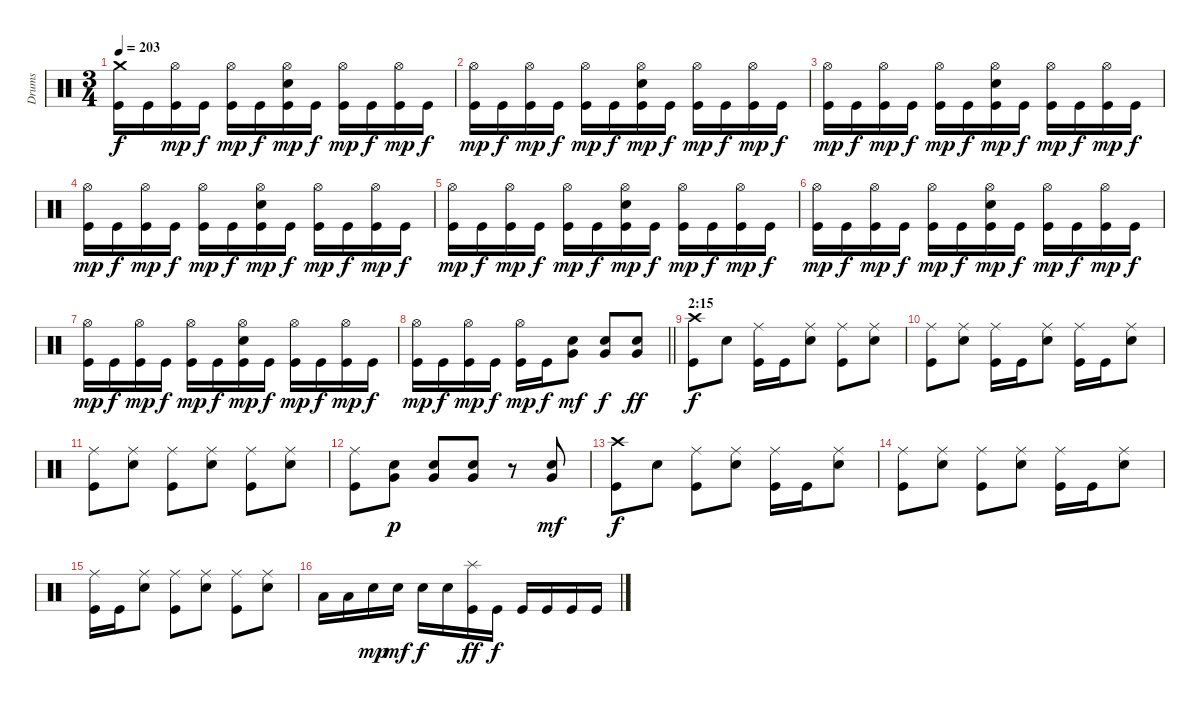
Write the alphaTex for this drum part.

\track ("Drums" "Drums") {instrument percussion}
\staff {score}
\articulation defaults
\ts (3 4)
\tempo 203
\clef neutral
\ks c
("Crash medium (hit)" "Kick (hit)").16{dy f} "Kick (hit)".16 ("Hi-Hat (open)" "Kick (hit)").16{dy mp} "Kick (hit)".16{dy f} ("Hi-Hat (open)" "Kick (hit)").16{dy mp} "Kick (hit)".16{dy f} ("Hi-Hat (open)" "Electric Snare (hit)" "Kick (hit)").16{dy mp} "Kick (hit)".16{dy f} ("Hi-Hat (open)" "Kick (hit)").16{dy mp} "Kick (hit)".16{dy f} ("Hi-Hat (open)" "Kick (hit)").16{dy mp} "Kick (hit)".16{dy f} |
("Hi-Hat (open)" "Kick (hit)").16{dy mp} "Kick (hit)".16{dy f} ("Hi-Hat (open)" "Kick (hit)").16{dy mp} "Kick (hit)".16{dy f} ("Hi-Hat (open)" "Kick (hit)").16{dy mp} "Kick (hit)".16{dy f} ("Hi-Hat (open)" "Electric Snare (hit)" "Kick (hit)").16{dy mp} "Kick (hit)".16{dy f} ("Hi-Hat (open)" "Kick (hit)").16{dy mp} "Kick (hit)".16{dy f} ("Hi-Hat (open)" "Kick (hit)").16{dy mp} "Kick (hit)".16{dy f} |
("Hi-Hat (open)" "Kick (hit)").16{dy mp} "Kick (hit)".16{dy f} ("Hi-Hat (open)" "Kick (hit)").16{dy mp} "Kick (hit)".16{dy f} ("Hi-Hat (open)" "Kick (hit)").16{dy mp} "Kick (hit)".16{dy f} ("Hi-Hat (open)" "Electric Snare (hit)" "Kick (hit)").16{dy mp} "Kick (hit)".16{dy f} ("Hi-Hat (open)" "Kick (hit)").16{dy mp} "Kick (hit)".16{dy f} ("Hi-Hat (open)" "Kick (hit)").16{dy mp} "Kick (hit)".16{dy f} |
("Hi-Hat (open)" "Kick (hit)").16{dy mp} "Kick (hit)".16{dy f} ("Hi-Hat (open)" "Kick (hit)").16{dy mp} "Kick (hit)".16{dy f} ("Hi-Hat (open)" "Kick (hit)").16{dy mp} "Kick (hit)".16{dy f} ("Hi-Hat (open)" "Electric Snare (hit)" "Kick (hit)").16{dy mp} "Kick (hit)".16{dy f} ("Hi-Hat (open)" "Kick (hit)").16{dy mp} "Kick (hit)".16{dy f} ("Hi-Hat (open)" "Kick (hit)").16{dy mp} "Kick (hit)".16{dy f} |
("Hi-Hat (open)" "Kick (hit)").16{dy mp} "Kick (hit)".16{dy f} ("Hi-Hat (open)" "Kick (hit)").16{dy mp} "Kick (hit)".16{dy f} ("Hi-Hat (open)" "Kick (hit)").16{dy mp} "Kick (hit)".16{dy f} ("Hi-Hat (open)" "Electric Snare (hit)" "Kick (hit)").16{dy mp} "Kick (hit)".16{dy f} ("Hi-Hat (open)" "Kick (hit)").16{dy mp} "Kick (hit)".16{dy f} ("Hi-Hat (open)" "Kick (hit)").16{dy mp} "Kick (hit)".16{dy f} |
("Hi-Hat (open)" "Kick (hit)").16{dy mp} "Kick (hit)".16{dy f} ("Hi-Hat (open)" "Kick (hit)").16{dy mp} "Kick (hit)".16{dy f} ("Hi-Hat (open)" "Kick (hit)").16{dy mp} "Kick (hit)".16{dy f} ("Hi-Hat (open)" "Electric Snare (hit)" "Kick (hit)").16{dy mp} "Kick (hit)".16{dy f} ("Hi-Hat (open)" "Kick (hit)").16{dy mp} "Kick (hit)".16{dy f} ("Hi-Hat (open)" "Kick (hit)").16{dy mp} "Kick (hit)".16{dy f} |
("Hi-Hat (open)" "Kick (hit)").16{dy mp} "Kick (hit)".16{dy f} ("Hi-Hat (open)" "Kick (hit)").16{dy mp} "Kick (hit)".16{dy f} ("Hi-Hat (open)" "Kick (hit)").16{dy mp} "Kick (hit)".16{dy f} ("Hi-Hat (open)" "Electric Snare (hit)" "Kick (hit)").16{dy mp} "Kick (hit)".16{dy f} ("Hi-Hat (open)" "Kick (hit)").16{dy mp} "Kick (hit)".16{dy f} ("Hi-Hat (open)" "Kick (hit)").16{dy mp} "Kick (hit)".16{dy f} |
\barLineRight lightlight
("Hi-Hat (open)" "Kick (hit)").16{dy mp} "Kick (hit)".16{dy f} ("Hi-Hat (open)" "Kick (hit)").16{dy mp} "Kick (hit)".16{dy f} ("Hi-Hat (open)" "Kick (hit)").16{dy mp} "Kick (hit)".16{dy f} ("Very Low Tom (hit)" "Electric Snare (hit)").8{dy mf} ("Very Low Tom (hit)" "Electric Snare (hit)").8{dy f} ("Very Low Tom (hit)" "Electric Snare (hit)").8{dy ff} |
\section ("" "2:15")
("Crash high (hit)" "Kick (hit)").8{dy f} "Electric Snare (hit)".8 ("Ride (middle)" "Kick (hit)").16 "Kick (hit)".16 ("Ride (middle)" "Electric Snare (hit)").8 ("Ride (middle)" "Kick (hit)").8 ("Ride (middle)" "Electric Snare (hit)").8 |
("Ride (middle)" "Kick (hit)").8 ("Ride (middle)" "Electric Snare (hit)").8 ("Ride (middle)" "Kick (hit)").16 "Kick (hit)".16 ("Ride (middle)" "Electric Snare (hit)").8 ("Ride (middle)" "Kick (hit)").16 "Kick (hit)".16 ("Ride (middle)" "Electric Snare (hit)").8 |
("Ride (middle)" "Kick (hit)").8 ("Ride (middle)" "Electric Snare (hit)").8 ("Ride (middle)" "Kick (hit)").8 ("Ride (middle)" "Electric Snare (hit)").8 ("Ride (middle)" "Kick (hit)").8 ("Ride (middle)" "Electric Snare (hit)").8 |
("Ride (middle)" "Kick (hit)").8 ("Very Low Tom (hit)" "Electric Snare (hit)").8{dy p} ("Very Low Tom (hit)" "Electric Snare (hit)").8 ("Very Low Tom (hit)" "Electric Snare (hit)").8 r.8 ("Very Low Tom (hit)" "Electric Snare (hit)").8{dy mf} |
("Crash high (hit)" "Kick (hit)").8{dy f} "Electric Snare (hit)".8 ("Ride (middle)" "Kick (hit)").8 ("Ride (middle)" "Electric Snare (hit)").8 ("Ride (middle)" "Kick (hit)").16 "Kick (hit)".16 ("Ride (middle)" "Electric Snare (hit)").8 |
("Ride (middle)" "Kick (hit)").8 ("Ride (middle)" "Electric Snare (hit)").8 ("Ride (middle)" "Kick (hit)").8 ("Ride (middle)" "Electric Snare (hit)").8 ("Ride (middle)" "Kick (hit)").16 "Kick (hit)".16 ("Ride (middle)" "Electric Snare (hit)").8 |
("Ride (middle)" "Kick (hit)").16 "Kick (hit)".16 ("Ride (middle)" "Electric Snare (hit)").8 ("Ride (middle)" "Kick (hit)").8 ("Ride (middle)" "Electric Snare (hit)").8 ("Ride (middle)" "Kick (hit)").8 ("Ride (middle)" "Electric Snare (hit)").8 |
"Low Tom (hit)".16 "Low Tom (hit)".16 "Electric Snare (hit)".16{dy mp} "Electric Snare (hit)".16{dy mf} "Electric Snare (hit)".16{dy f} "Electric Snare (hit)".16 ("Splash (hit)" "Kick (hit)").16{dy ff} "Kick (hit)".16{dy f} "Kick (hit)".16 "Kick (hit)".16 "Kick (hit)".16 "Kick (hit)".16
